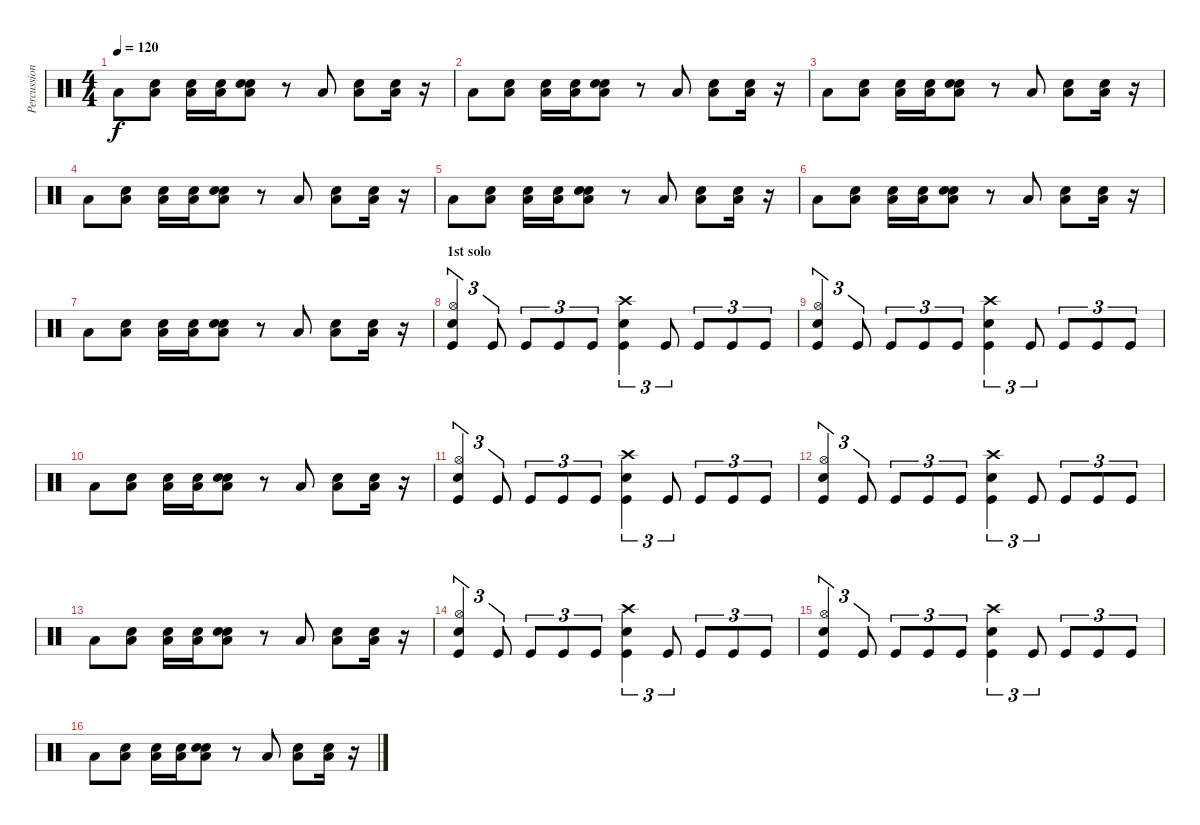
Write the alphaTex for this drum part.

\track ("Percussions" "Percussion") {instrument percussion}
\staff {score}
\articulation defaults
\ts (4 4)
\tempo 120
\clef neutral
\ks c "Low Floor Tom (hit)".8{dy f}
("Snare (hit)" "Low Floor Tom (hit)").8 ("Snare (hit)" "Low Floor Tom (hit)").16 ("Snare (hit)" "Low Floor Tom (hit)").16 ("Snare (hit)" "Electric Snare (hit)" "Low Floor Tom (hit)").8 r.8 "Low Floor Tom (hit)".8 ("Snare (hit)" "Low Floor Tom (hit)").8 ("Snare (hit)" "Low Floor Tom (hit)").16 r.16 |
"Low Floor Tom (hit)".8 ("Snare (hit)" "Low Floor Tom (hit)").8 ("Snare (hit)" "Low Floor Tom (hit)").16 ("Snare (hit)" "Low Floor Tom (hit)").16 ("Snare (hit)" "Electric Snare (hit)" "Low Floor Tom (hit)").8 r.8 "Low Floor Tom (hit)".8 ("Snare (hit)" "Low Floor Tom (hit)").8 ("Snare (hit)" "Low Floor Tom (hit)").16 r.16 |
"Low Floor Tom (hit)".8 ("Snare (hit)" "Low Floor Tom (hit)").8 ("Snare (hit)" "Low Floor Tom (hit)").16 ("Snare (hit)" "Low Floor Tom (hit)").16 ("Snare (hit)" "Electric Snare (hit)" "Low Floor Tom (hit)").8 r.8 "Low Floor Tom (hit)".8 ("Snare (hit)" "Low Floor Tom (hit)").8 ("Snare (hit)" "Low Floor Tom (hit)").16 r.16 |
"Low Floor Tom (hit)".8 ("Snare (hit)" "Low Floor Tom (hit)").8 ("Snare (hit)" "Low Floor Tom (hit)").16 ("Snare (hit)" "Low Floor Tom (hit)").16 ("Snare (hit)" "Electric Snare (hit)" "Low Floor Tom (hit)").8 r.8 "Low Floor Tom (hit)".8 ("Snare (hit)" "Low Floor Tom (hit)").8 ("Snare (hit)" "Low Floor Tom (hit)").16 r.16 |
"Low Floor Tom (hit)".8 ("Snare (hit)" "Low Floor Tom (hit)").8 ("Snare (hit)" "Low Floor Tom (hit)").16 ("Snare (hit)" "Low Floor Tom (hit)").16 ("Snare (hit)" "Electric Snare (hit)" "Low Floor Tom (hit)").8 r.8 "Low Floor Tom (hit)".8 ("Snare (hit)" "Low Floor Tom (hit)").8 ("Snare (hit)" "Low Floor Tom (hit)").16 r.16 |
"Low Floor Tom (hit)".8 ("Snare (hit)" "Low Floor Tom (hit)").8 ("Snare (hit)" "Low Floor Tom (hit)").16 ("Snare (hit)" "Low Floor Tom (hit)").16 ("Snare (hit)" "Electric Snare (hit)" "Low Floor Tom (hit)").8 r.8 "Low Floor Tom (hit)".8 ("Snare (hit)" "Low Floor Tom (hit)").8 ("Snare (hit)" "Low Floor Tom (hit)").16 r.16 |
"Low Floor Tom (hit)".8 ("Snare (hit)" "Low Floor Tom (hit)").8 ("Snare (hit)" "Low Floor Tom (hit)").16 ("Snare (hit)" "Low Floor Tom (hit)").16 ("Snare (hit)" "Electric Snare (hit)" "Low Floor Tom (hit)").8 r.8 "Low Floor Tom (hit)".8 ("Snare (hit)" "Low Floor Tom (hit)").8 ("Snare (hit)" "Low Floor Tom (hit)").16 r.16 |
\section ("" "1st solo")
("Hi-Hat (open)" "Snare (hit) 2" "Kick (hit)").4{tu (3 2)} "Kick (hit)".8{tu (3 2)} "Kick (hit)".8{tu (3 2)} "Kick (hit)".8{tu (3 2)} "Kick (hit)".8{tu (3 2)} ("Crash high (hit)" "Snare (hit) 2" "Kick (hit)").4{tu (3 2)} "Kick (hit)".8{tu (3 2)} "Kick (hit)".8{tu (3 2)} "Kick (hit)".8{tu (3 2)} "Kick (hit)".8{tu (3 2)} |
("Hi-Hat (open)" "Snare (hit) 2" "Kick (hit)").4{tu (3 2)} "Kick (hit)".8{tu (3 2)} "Kick (hit)".8{tu (3 2)} "Kick (hit)".8{tu (3 2)} "Kick (hit)".8{tu (3 2)} ("Crash high (hit)" "Snare (hit) 2" "Kick (hit)").4{tu (3 2)} "Kick (hit)".8{tu (3 2)} "Kick (hit)".8{tu (3 2)} "Kick (hit)".8{tu (3 2)} "Kick (hit)".8{tu (3 2)} |
"Low Floor Tom (hit)".8 ("Snare (hit)" "Low Floor Tom (hit)").8 ("Snare (hit)" "Low Floor Tom (hit)").16 ("Snare (hit)" "Low Floor Tom (hit)").16 ("Snare (hit)" "Electric Snare (hit)" "Low Floor Tom (hit)").8 r.8 "Low Floor Tom (hit)".8 ("Snare (hit)" "Low Floor Tom (hit)").8 ("Snare (hit)" "Low Floor Tom (hit)").16 r.16 |
("Hi-Hat (open)" "Snare (hit) 2" "Kick (hit)").4{tu (3 2)} "Kick (hit)".8{tu (3 2)} "Kick (hit)".8{tu (3 2)} "Kick (hit)".8{tu (3 2)} "Kick (hit)".8{tu (3 2)} ("Crash high (hit)" "Snare (hit) 2" "Kick (hit)").4{tu (3 2)} "Kick (hit)".8{tu (3 2)} "Kick (hit)".8{tu (3 2)} "Kick (hit)".8{tu (3 2)} "Kick (hit)".8{tu (3 2)} |
("Hi-Hat (open)" "Snare (hit) 2" "Kick (hit)").4{tu (3 2)} "Kick (hit)".8{tu (3 2)} "Kick (hit)".8{tu (3 2)} "Kick (hit)".8{tu (3 2)} "Kick (hit)".8{tu (3 2)} ("Crash high (hit)" "Snare (hit) 2" "Kick (hit)").4{tu (3 2)} "Kick (hit)".8{tu (3 2)} "Kick (hit)".8{tu (3 2)} "Kick (hit)".8{tu (3 2)} "Kick (hit)".8{tu (3 2)} |
"Low Floor Tom (hit)".8 ("Snare (hit)" "Low Floor Tom (hit)").8 ("Snare (hit)" "Low Floor Tom (hit)").16 ("Snare (hit)" "Low Floor Tom (hit)").16 ("Snare (hit)" "Electric Snare (hit)" "Low Floor Tom (hit)").8 r.8 "Low Floor Tom (hit)".8 ("Snare (hit)" "Low Floor Tom (hit)").8 ("Snare (hit)" "Low Floor Tom (hit)").16 r.16 |
("Hi-Hat (open)" "Snare (hit) 2" "Kick (hit)").4{tu (3 2)} "Kick (hit)".8{tu (3 2)} "Kick (hit)".8{tu (3 2)} "Kick (hit)".8{tu (3 2)} "Kick (hit)".8{tu (3 2)} ("Crash high (hit)" "Snare (hit) 2" "Kick (hit)").4{tu (3 2)} "Kick (hit)".8{tu (3 2)} "Kick (hit)".8{tu (3 2)} "Kick (hit)".8{tu (3 2)} "Kick (hit)".8{tu (3 2)} |
("Hi-Hat (open)" "Snare (hit) 2" "Kick (hit)").4{tu (3 2)} "Kick (hit)".8{tu (3 2)} "Kick (hit)".8{tu (3 2)} "Kick (hit)".8{tu (3 2)} "Kick (hit)".8{tu (3 2)} ("Crash high (hit)" "Snare (hit) 2" "Kick (hit)").4{tu (3 2)} "Kick (hit)".8{tu (3 2)} "Kick (hit)".8{tu (3 2)} "Kick (hit)".8{tu (3 2)} "Kick (hit)".8{tu (3 2)} |
"Low Floor Tom (hit)".8 ("Snare (hit)" "Low Floor Tom (hit)").8 ("Snare (hit)" "Low Floor Tom (hit)").16 ("Snare (hit)" "Low Floor Tom (hit)").16 ("Snare (hit)" "Electric Snare (hit)" "Low Floor Tom (hit)").8 r.8 "Low Floor Tom (hit)".8 ("Snare (hit)" "Low Floor Tom (hit)").8 ("Snare (hit)" "Low Floor Tom (hit)").16 r.16
